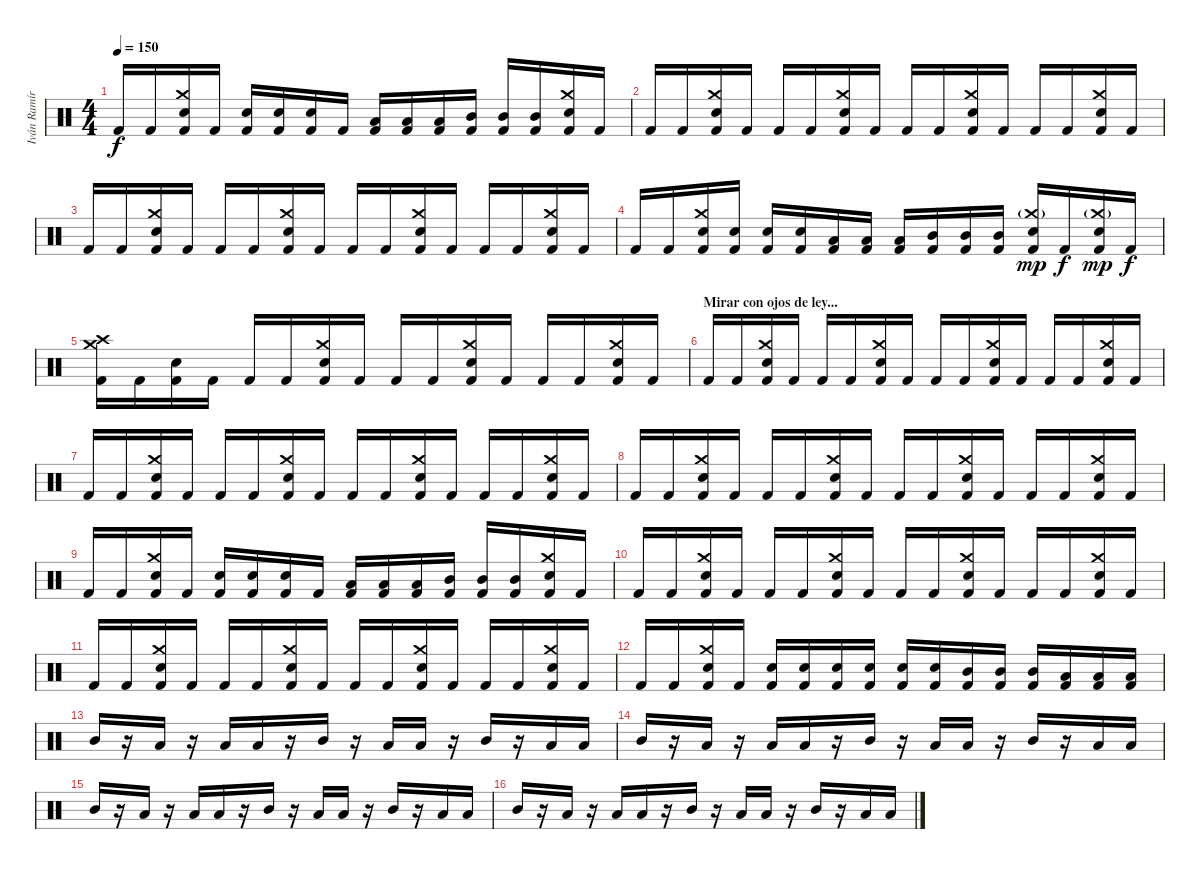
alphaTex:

\track ("Iván Ramírez" "Iván Ramír") {instrument percussion}
\staff {score}
\articulation defaults
\ts (4 4)
\tempo 150
\clef neutral
\ks c "Kick (hit) 2".16{dy f} "Kick (hit) 2".16
("Crash medium (hit)" "Electric Snare (hit)" "Kick (hit) 2").16 "Kick (hit) 2".16 ("Electric Snare (hit)" "Kick (hit) 2").16 ("Electric Snare (hit)" "Kick (hit) 2").16 ("Electric Snare (hit)" "Kick (hit) 2").16 "Kick (hit) 2".16 ("Low Tom (hit)" "Kick (hit) 2").16 ("Low Tom (hit)" "Kick (hit) 2").16 ("Low Tom (hit)" "Kick (hit) 2").16 ("Mid Tom (hit)" "Kick (hit) 2").16 ("Mid Tom (hit)" "Kick (hit) 2").16 ("Mid Tom (hit)" "Kick (hit) 2").16 ("Crash medium (hit)" "Electric Snare (hit)" "Kick (hit) 2").16 "Kick (hit) 2".16 |
"Kick (hit) 2".16 "Kick (hit) 2".16 ("Crash medium (hit)" "Electric Snare (hit)" "Kick (hit) 2").16 "Kick (hit) 2".16 "Kick (hit) 2".16 "Kick (hit) 2".16 ("Crash medium (hit)" "Electric Snare (hit)" "Kick (hit) 2").16 "Kick (hit) 2".16 "Kick (hit) 2".16 "Kick (hit) 2".16 ("Crash medium (hit)" "Electric Snare (hit)" "Kick (hit) 2").16 "Kick (hit) 2".16 "Kick (hit) 2".16 "Kick (hit) 2".16 ("Crash medium (hit)" "Electric Snare (hit)" "Kick (hit) 2").16 "Kick (hit) 2".16 |
"Kick (hit) 2".16 "Kick (hit) 2".16 ("Crash medium (hit)" "Electric Snare (hit)" "Kick (hit) 2").16 "Kick (hit) 2".16 "Kick (hit) 2".16 "Kick (hit) 2".16 ("Crash medium (hit)" "Electric Snare (hit)" "Kick (hit) 2").16 "Kick (hit) 2".16 "Kick (hit) 2".16 "Kick (hit) 2".16 ("Crash medium (hit)" "Electric Snare (hit)" "Kick (hit) 2").16 "Kick (hit) 2".16 "Kick (hit) 2".16 "Kick (hit) 2".16 ("Crash medium (hit)" "Electric Snare (hit)" "Kick (hit) 2").16 "Kick (hit) 2".16 |
"Kick (hit) 2".16 "Kick (hit) 2".16 ("Crash medium (hit)" "Electric Snare (hit)" "Kick (hit) 2").16 ("Electric Snare (hit)" "Kick (hit) 2").16 ("Electric Snare (hit)" "Kick (hit) 2").16 ("Electric Snare (hit)" "Kick (hit) 2").16 ("Low Tom (hit)" "Kick (hit) 2").16 ("Low Tom (hit)" "Kick (hit) 2").16 ("Low Tom (hit)" "Kick (hit) 2").16 ("Mid Tom (hit)" "Kick (hit) 2").16 ("Mid Tom (hit)" "Kick (hit) 2").16 ("Mid Tom (hit)" "Kick (hit) 2").16 ("Crash medium (hit)"{g} "Electric Snare (hit)" "Kick (hit) 2").16{dy mp} "Kick (hit) 2".16{dy f} ("Crash medium (hit)"{g} "Electric Snare (hit)" "Kick (hit) 2").16{dy mp} "Kick (hit) 2".16{dy f} |
("Crash medium (hit)" "Crash high (hit)" "Kick (hit) 2").16 "Kick (hit) 2".16 ("Electric Snare (hit)" "Kick (hit) 2").16 "Kick (hit) 2".16 "Kick (hit) 2".16 "Kick (hit) 2".16 ("Crash medium (hit)" "Electric Snare (hit)" "Kick (hit) 2").16 "Kick (hit) 2".16 "Kick (hit) 2".16 "Kick (hit) 2".16 ("Crash medium (hit)" "Electric Snare (hit)" "Kick (hit) 2").16 "Kick (hit) 2".16 "Kick (hit) 2".16 "Kick (hit) 2".16 ("Crash medium (hit)" "Electric Snare (hit)" "Kick (hit) 2").16 "Kick (hit) 2".16 |
\section ("" "Mirar con ojos de ley...")
"Kick (hit) 2".16 "Kick (hit) 2".16 ("Crash medium (hit)" "Electric Snare (hit)" "Kick (hit) 2").16 "Kick (hit) 2".16 "Kick (hit) 2".16 "Kick (hit) 2".16 ("Crash medium (hit)" "Electric Snare (hit)" "Kick (hit) 2").16 "Kick (hit) 2".16 "Kick (hit) 2".16 "Kick (hit) 2".16 ("Crash medium (hit)" "Electric Snare (hit)" "Kick (hit) 2").16 "Kick (hit) 2".16 "Kick (hit) 2".16 "Kick (hit) 2".16 ("Crash medium (hit)" "Electric Snare (hit)" "Kick (hit) 2").16 "Kick (hit) 2".16 |
"Kick (hit) 2".16 "Kick (hit) 2".16 ("Crash medium (hit)" "Electric Snare (hit)" "Kick (hit) 2").16 "Kick (hit) 2".16 "Kick (hit) 2".16 "Kick (hit) 2".16 ("Crash medium (hit)" "Electric Snare (hit)" "Kick (hit) 2").16 "Kick (hit) 2".16 "Kick (hit) 2".16 "Kick (hit) 2".16 ("Crash medium (hit)" "Electric Snare (hit)" "Kick (hit) 2").16 "Kick (hit) 2".16 "Kick (hit) 2".16 "Kick (hit) 2".16 ("Crash medium (hit)" "Electric Snare (hit)" "Kick (hit) 2").16 "Kick (hit) 2".16 |
"Kick (hit) 2".16 "Kick (hit) 2".16 ("Crash medium (hit)" "Electric Snare (hit)" "Kick (hit) 2").16 "Kick (hit) 2".16 "Kick (hit) 2".16 "Kick (hit) 2".16 ("Crash medium (hit)" "Electric Snare (hit)" "Kick (hit) 2").16 "Kick (hit) 2".16 "Kick (hit) 2".16 "Kick (hit) 2".16 ("Crash medium (hit)" "Electric Snare (hit)" "Kick (hit) 2").16 "Kick (hit) 2".16 "Kick (hit) 2".16 "Kick (hit) 2".16 ("Crash medium (hit)" "Electric Snare (hit)" "Kick (hit) 2").16 "Kick (hit) 2".16 |
"Kick (hit) 2".16 "Kick (hit) 2".16 ("Crash medium (hit)" "Electric Snare (hit)" "Kick (hit) 2").16 "Kick (hit) 2".16 ("Electric Snare (hit)" "Kick (hit) 2").16 ("Electric Snare (hit)" "Kick (hit) 2").16 ("Electric Snare (hit)" "Kick (hit) 2").16 "Kick (hit) 2".16 ("Low Tom (hit)" "Kick (hit) 2").16 ("Low Tom (hit)" "Kick (hit) 2").16 ("Low Tom (hit)" "Kick (hit) 2").16 ("Mid Tom (hit)" "Kick (hit) 2").16 ("Mid Tom (hit)" "Kick (hit) 2").16 ("Mid Tom (hit)" "Kick (hit) 2").16 ("Crash medium (hit)" "Electric Snare (hit)" "Kick (hit) 2").16 "Kick (hit) 2".16 |
"Kick (hit) 2".16 "Kick (hit) 2".16 ("Crash medium (hit)" "Electric Snare (hit)" "Kick (hit) 2").16 "Kick (hit) 2".16 "Kick (hit) 2".16 "Kick (hit) 2".16 ("Crash medium (hit)" "Electric Snare (hit)" "Kick (hit) 2").16 "Kick (hit) 2".16 "Kick (hit) 2".16 "Kick (hit) 2".16 ("Crash medium (hit)" "Electric Snare (hit)" "Kick (hit) 2").16 "Kick (hit) 2".16 "Kick (hit) 2".16 "Kick (hit) 2".16 ("Crash medium (hit)" "Electric Snare (hit)" "Kick (hit) 2").16 "Kick (hit) 2".16 |
"Kick (hit) 2".16 "Kick (hit) 2".16 ("Crash medium (hit)" "Electric Snare (hit)" "Kick (hit) 2").16 "Kick (hit) 2".16 "Kick (hit) 2".16 "Kick (hit) 2".16 ("Crash medium (hit)" "Electric Snare (hit)" "Kick (hit) 2").16 "Kick (hit) 2".16 "Kick (hit) 2".16 "Kick (hit) 2".16 ("Crash medium (hit)" "Electric Snare (hit)" "Kick (hit) 2").16 "Kick (hit) 2".16 "Kick (hit) 2".16 "Kick (hit) 2".16 ("Crash medium (hit)" "Electric Snare (hit)" "Kick (hit) 2").16 "Kick (hit) 2".16 |
"Kick (hit) 2".16 "Kick (hit) 2".16 ("Crash medium (hit)" "Electric Snare (hit)" "Kick (hit) 2").16 "Kick (hit) 2".16 ("Electric Snare (hit)" "Kick (hit) 2").16 ("Electric Snare (hit)" "Kick (hit) 2").16 ("Electric Snare (hit)" "Kick (hit) 2").16 ("Electric Snare (hit)" "Kick (hit) 2").16 ("Electric Snare (hit)" "Kick (hit) 2").16 ("Electric Snare (hit)" "Kick (hit) 2").16 ("Mid Tom (hit)" "Kick (hit) 2").16 ("Mid Tom (hit)" "Kick (hit) 2").16 ("Mid Tom (hit)" "Kick (hit) 2").16 ("Low Tom (hit)" "Kick (hit) 2").16 ("Low Tom (hit)" "Kick (hit) 2").16 ("Low Tom (hit)" "Kick (hit) 2").16 |
"Mid Tom (hit)".16 r.16 "Low Tom (hit)".16 r.16 "Low Tom (hit)".16 "Low Tom (hit)".16 r.16 "Mid Tom (hit)".16 r.16 "Low Tom (hit)".16 "Low Tom (hit)".16 r.16 "Mid Tom (hit)".16 r.16 "Low Tom (hit)".16 "Low Tom (hit)".16 |
"Mid Tom (hit)".16 r.16 "Low Tom (hit)".16 r.16 "Low Tom (hit)".16 "Low Tom (hit)".16 r.16 "Mid Tom (hit)".16 r.16 "Low Tom (hit)".16 "Low Tom (hit)".16 r.16 "Mid Tom (hit)".16 r.16 "Low Tom (hit)".16 "Low Tom (hit)".16 |
"Mid Tom (hit)".16 r.16 "Low Tom (hit)".16 r.16 "Low Tom (hit)".16 "Low Tom (hit)".16 r.16 "Mid Tom (hit)".16 r.16 "Low Tom (hit)".16 "Low Tom (hit)".16 r.16 "Mid Tom (hit)".16 r.16 "Low Tom (hit)".16 "Low Tom (hit)".16 |
"Mid Tom (hit)".16 r.16 "Low Tom (hit)".16 r.16 "Low Tom (hit)".16 "Low Tom (hit)".16 r.16 "Mid Tom (hit)".16 r.16 "Low Tom (hit)".16 "Low Tom (hit)".16 r.16 "Mid Tom (hit)".16 r.16 "Low Tom (hit)".16 "Low Tom (hit)".16
